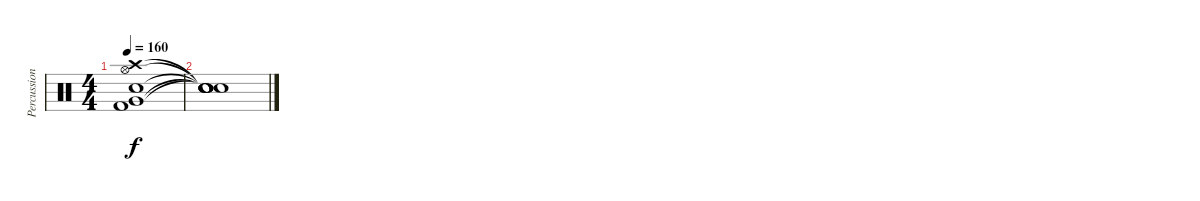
\track ("Percussions" "Percussion") {instrument percussion}
\staff {score}
\articulation defaults
\ts (4 4)
\tempo 160
\clef neutral
\ks c
("Crash high (hit)" "Hi-Hat (open)" "Electric Snare (hit)" "Kick (hit) 2" "Very Low Tom (hit)").1{dy f} |
("Snare (hit)"{t} "Snare (hit)"{t} "Snare (hit)"{t} "Snare (hit)"{t} "Snare (hit)"{t}).1
